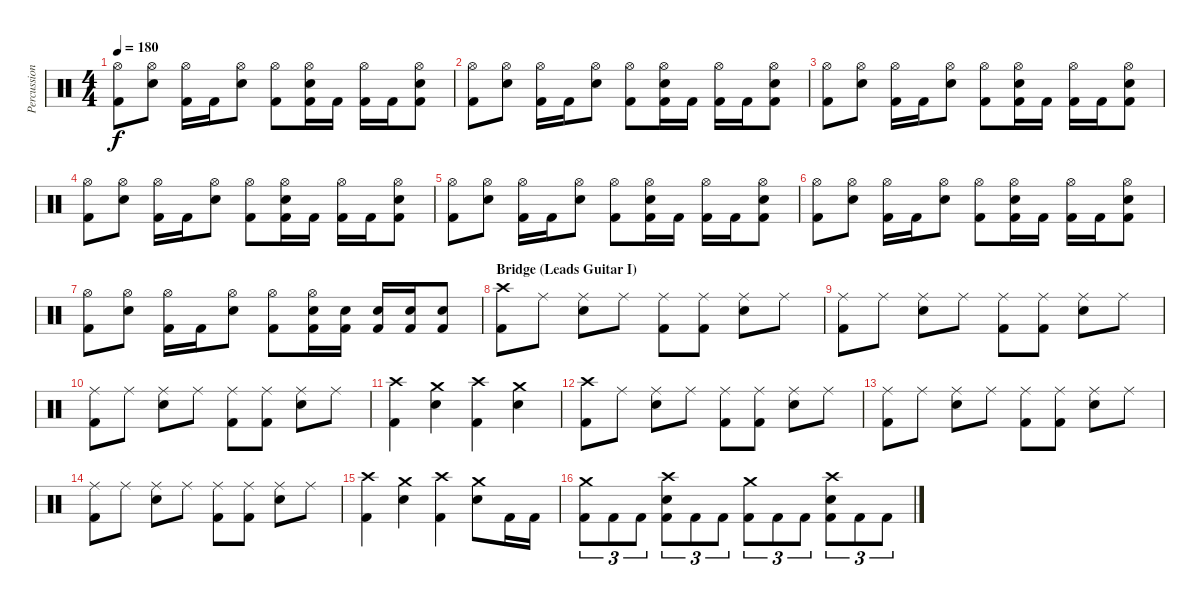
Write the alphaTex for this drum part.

\track ("Percussion" "Percussion") {instrument percussion}
\staff {score}
\articulation defaults
\ts (4 4)
\tempo 180
\clef neutral
\ks c
("Hi-Hat (open)" "Kick (hit) 2").8{dy f} ("Hi-Hat (open)" "Snare (hit) 2").8 ("Hi-Hat (open)" "Kick (hit) 2").16 "Kick (hit) 2".16 ("Hi-Hat (open)" "Snare (hit) 2").8 ("Hi-Hat (open)" "Kick (hit) 2").8 ("Hi-Hat (open)" "Snare (hit) 2" "Kick (hit) 2").16 "Kick (hit) 2".16 ("Hi-Hat (open)" "Kick (hit) 2").16 "Kick (hit) 2".16 ("Hi-Hat (open)" "Snare (hit) 2" "Kick (hit) 2").8 |
("Hi-Hat (open)" "Kick (hit) 2").8 ("Hi-Hat (open)" "Snare (hit) 2").8 ("Hi-Hat (open)" "Kick (hit) 2").16 "Kick (hit) 2".16 ("Hi-Hat (open)" "Snare (hit) 2").8 ("Hi-Hat (open)" "Kick (hit) 2").8 ("Hi-Hat (open)" "Snare (hit) 2" "Kick (hit) 2").16 "Kick (hit) 2".16 ("Hi-Hat (open)" "Kick (hit) 2").16 "Kick (hit) 2".16 ("Hi-Hat (open)" "Snare (hit) 2" "Kick (hit) 2").8 |
("Hi-Hat (open)" "Kick (hit) 2").8 ("Hi-Hat (open)" "Snare (hit) 2").8 ("Hi-Hat (open)" "Kick (hit) 2").16 "Kick (hit) 2".16 ("Hi-Hat (open)" "Snare (hit) 2").8 ("Hi-Hat (open)" "Kick (hit) 2").8 ("Hi-Hat (open)" "Snare (hit) 2" "Kick (hit) 2").16 "Kick (hit) 2".16 ("Hi-Hat (open)" "Kick (hit) 2").16 "Kick (hit) 2".16 ("Hi-Hat (open)" "Snare (hit) 2" "Kick (hit) 2").8 |
("Hi-Hat (open)" "Kick (hit) 2").8 ("Hi-Hat (open)" "Snare (hit) 2").8 ("Hi-Hat (open)" "Kick (hit) 2").16 "Kick (hit) 2".16 ("Hi-Hat (open)" "Snare (hit) 2").8 ("Hi-Hat (open)" "Kick (hit) 2").8 ("Hi-Hat (open)" "Snare (hit) 2" "Kick (hit) 2").16 "Kick (hit) 2".16 ("Hi-Hat (open)" "Kick (hit) 2").16 "Kick (hit) 2".16 ("Hi-Hat (open)" "Snare (hit) 2" "Kick (hit) 2").8 |
("Hi-Hat (open)" "Kick (hit) 2").8 ("Hi-Hat (open)" "Snare (hit) 2").8 ("Hi-Hat (open)" "Kick (hit) 2").16 "Kick (hit) 2".16 ("Hi-Hat (open)" "Snare (hit) 2").8 ("Hi-Hat (open)" "Kick (hit) 2").8 ("Hi-Hat (open)" "Snare (hit) 2" "Kick (hit) 2").16 "Kick (hit) 2".16 ("Hi-Hat (open)" "Kick (hit) 2").16 "Kick (hit) 2".16 ("Hi-Hat (open)" "Snare (hit) 2" "Kick (hit) 2").8 |
("Hi-Hat (open)" "Kick (hit) 2").8 ("Hi-Hat (open)" "Snare (hit) 2").8 ("Hi-Hat (open)" "Kick (hit) 2").16 "Kick (hit) 2".16 ("Hi-Hat (open)" "Snare (hit) 2").8 ("Hi-Hat (open)" "Kick (hit) 2").8 ("Hi-Hat (open)" "Snare (hit) 2" "Kick (hit) 2").16 "Kick (hit) 2".16 ("Hi-Hat (open)" "Kick (hit) 2").16 "Kick (hit) 2".16 ("Hi-Hat (open)" "Snare (hit) 2" "Kick (hit) 2").8 |
("Hi-Hat (open)" "Kick (hit) 2").8 ("Hi-Hat (open)" "Snare (hit) 2").8 ("Hi-Hat (open)" "Kick (hit) 2").16 "Kick (hit) 2".16 ("Hi-Hat (open)" "Snare (hit) 2").8 ("Hi-Hat (open)" "Kick (hit) 2").8 ("Hi-Hat (open)" "Snare (hit) 2" "Kick (hit) 2").16 ("Snare (hit) 2" "Kick (hit) 2").16 ("Snare (hit) 2" "Kick (hit) 2").16 ("Snare (hit) 2" "Kick (hit) 2").16 ("Snare (hit) 2" "Kick (hit) 2").8 |
\section ("" "Bridge (Leads Guitar I)")
("Crash high (hit)" "Kick (hit) 2").8 "Ride (middle)".8 ("Ride (middle)" "Snare (hit) 2").8 "Ride (middle)".8 ("Ride (middle)" "Kick (hit) 2").8 ("Ride (middle)" "Kick (hit) 2").8 ("Ride (middle)" "Snare (hit) 2").8 "Ride (middle)".8 |
("Ride (middle)" "Kick (hit) 2").8 "Ride (middle)".8 ("Ride (middle)" "Snare (hit) 2").8 "Ride (middle)".8 ("Ride (middle)" "Kick (hit) 2").8 ("Ride (middle)" "Kick (hit) 2").8 ("Ride (middle)" "Snare (hit) 2").8 "Ride (middle)".8 |
("Ride (middle)" "Kick (hit) 2").8 "Ride (middle)".8 ("Ride (middle)" "Snare (hit) 2").8 "Ride (middle)".8 ("Ride (middle)" "Kick (hit) 2").8 ("Ride (middle)" "Kick (hit) 2").8 ("Ride (middle)" "Snare (hit) 2").8 "Ride (middle)".8 |
("Crash high (hit)" "Kick (hit) 2").4 ("Crash medium (hit)" "Snare (hit) 2").4 ("Crash high (hit)" "Kick (hit) 2").4 ("Crash medium (hit)" "Snare (hit) 2").4 |
("Crash high (hit)" "Kick (hit) 2").8 "Ride (middle)".8 ("Ride (middle)" "Snare (hit) 2").8 "Ride (middle)".8 ("Ride (middle)" "Kick (hit) 2").8 ("Ride (middle)" "Kick (hit) 2").8 ("Ride (middle)" "Snare (hit) 2").8 "Ride (middle)".8 |
("Ride (middle)" "Kick (hit) 2").8 "Ride (middle)".8 ("Ride (middle)" "Snare (hit) 2").8 "Ride (middle)".8 ("Ride (middle)" "Kick (hit) 2").8 ("Ride (middle)" "Kick (hit) 2").8 ("Ride (middle)" "Snare (hit) 2").8 "Ride (middle)".8 |
("Ride (middle)" "Kick (hit) 2").8 "Ride (middle)".8 ("Ride (middle)" "Snare (hit) 2").8 "Ride (middle)".8 ("Ride (middle)" "Kick (hit) 2").8 ("Ride (middle)" "Kick (hit) 2").8 ("Ride (middle)" "Snare (hit) 2").8 "Ride (middle)".8 |
("Crash high (hit)" "Kick (hit) 2").4 ("Crash medium (hit)" "Snare (hit) 2").4 ("Crash high (hit)" "Kick (hit) 2").4 ("Crash medium (hit)" "Snare (hit) 2").8 "Kick (hit) 2".16 "Kick (hit) 2".16 |
("Crash medium (hit)" "Kick (hit) 2").8{tu (3 2)} "Kick (hit) 2".8{tu (3 2)} "Kick (hit) 2".8{tu (3 2)} ("Crash high (hit)" "Snare (hit) 2" "Kick (hit) 2").8{tu (3 2)} "Kick (hit) 2".8{tu (3 2)} "Kick (hit) 2".8{tu (3 2)} ("Crash medium (hit)" "Kick (hit) 2").8{tu (3 2)} "Kick (hit) 2".8{tu (3 2)} "Kick (hit) 2".8{tu (3 2)} ("Crash high (hit)" "Snare (hit) 2" "Kick (hit) 2").8{tu (3 2)} "Kick (hit) 2".8{tu (3 2)} "Kick (hit) 2".8{tu (3 2)}
